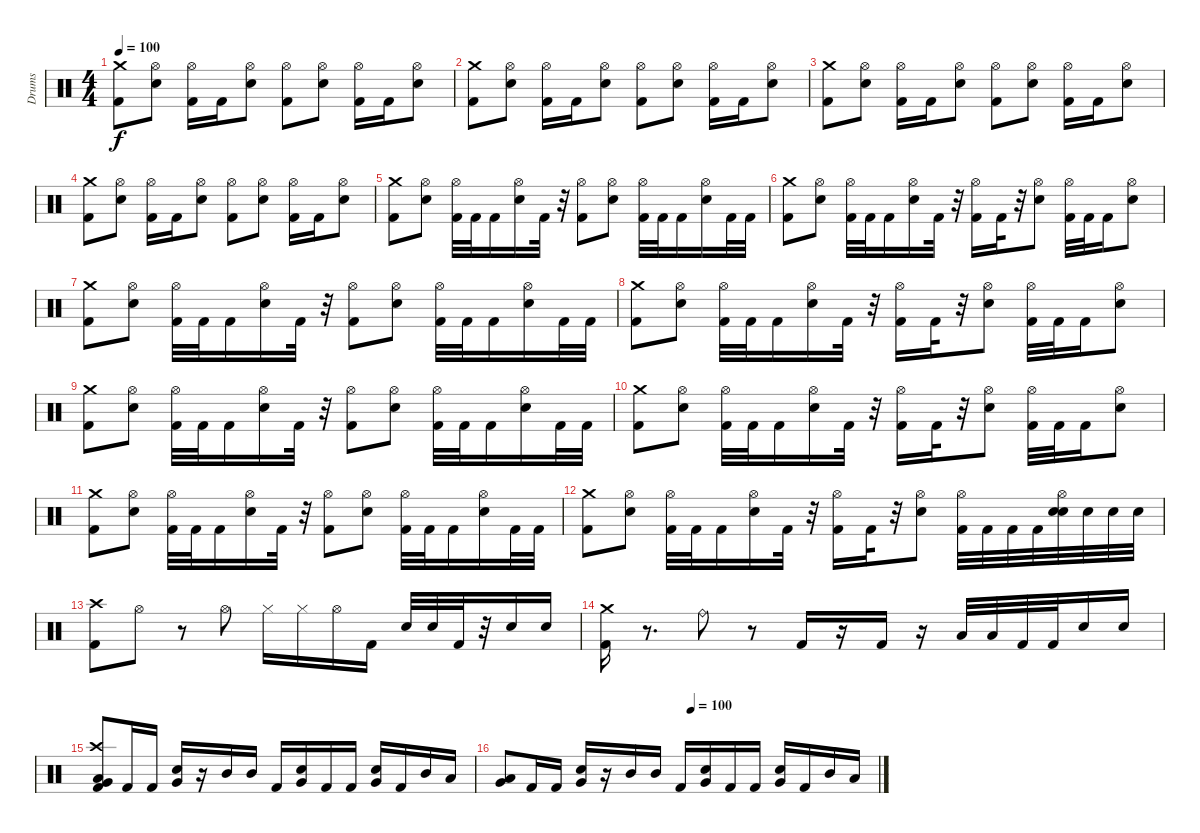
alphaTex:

\track ("Drums" "Drums") {instrument percussion}
\staff {score}
\articulation defaults
\ts (4 4)
\tempo 100
\clef neutral
\ks c
("Kick (hit) 2" "Crash medium (hit)").8{dy f} ("Electric Snare (hit)" "Hi-Hat (open)").8 ("Kick (hit) 2" "Hi-Hat (open)").16 "Kick (hit) 2".16 ("Electric Snare (hit)" "Hi-Hat (open)").8 ("Kick (hit) 2" "Hi-Hat (open)").8 ("Electric Snare (hit)" "Hi-Hat (open)").8 ("Kick (hit) 2" "Hi-Hat (open)").16 "Kick (hit) 2".16 ("Electric Snare (hit)" "Hi-Hat (open)").8 |
("Kick (hit) 2" "Crash medium (hit)").8 ("Electric Snare (hit)" "Hi-Hat (open)").8 ("Kick (hit) 2" "Hi-Hat (open)").16 "Kick (hit) 2".16 ("Electric Snare (hit)" "Hi-Hat (open)").8 ("Kick (hit) 2" "Hi-Hat (open)").8 ("Electric Snare (hit)" "Hi-Hat (open)").8 ("Kick (hit) 2" "Hi-Hat (open)").16 "Kick (hit) 2".16 ("Electric Snare (hit)" "Hi-Hat (open)").8 |
("Kick (hit) 2" "Crash medium (hit)").8 ("Electric Snare (hit)" "Hi-Hat (open)").8 ("Kick (hit) 2" "Hi-Hat (open)").16 "Kick (hit) 2".16 ("Electric Snare (hit)" "Hi-Hat (open)").8 ("Kick (hit) 2" "Hi-Hat (open)").8 ("Electric Snare (hit)" "Hi-Hat (open)").8 ("Kick (hit) 2" "Hi-Hat (open)").16 "Kick (hit) 2".16 ("Electric Snare (hit)" "Hi-Hat (open)").8 |
("Kick (hit) 2" "Crash medium (hit)").8 ("Electric Snare (hit)" "Hi-Hat (open)").8 ("Kick (hit) 2" "Hi-Hat (open)").16 "Kick (hit) 2".16 ("Electric Snare (hit)" "Hi-Hat (open)").8 ("Kick (hit) 2" "Hi-Hat (open)").8 ("Electric Snare (hit)" "Hi-Hat (open)").8 ("Kick (hit) 2" "Hi-Hat (open)").16 "Kick (hit) 2".16 ("Electric Snare (hit)" "Hi-Hat (open)").8 |
("Kick (hit) 2" "Crash medium (hit)").8 ("Electric Snare (hit)" "Hi-Hat (open)").8 ("Kick (hit) 2" "Hi-Hat (open)").32 "Kick (hit) 2".32 "Kick (hit) 2".16 ("Electric Snare (hit)" "Hi-Hat (open)").16 "Kick (hit) 2".32 r.32 ("Kick (hit) 2" "Hi-Hat (open)").8 ("Electric Snare (hit)" "Hi-Hat (open)").8 ("Kick (hit) 2" "Hi-Hat (open)").32 "Kick (hit) 2".32 "Kick (hit) 2".16 ("Electric Snare (hit)" "Hi-Hat (open)").16 "Kick (hit) 2".32 "Kick (hit) 2".32 |
("Kick (hit) 2" "Crash medium (hit)").8 ("Electric Snare (hit)" "Hi-Hat (open)").8 ("Kick (hit) 2" "Hi-Hat (open)").32 "Kick (hit) 2".32 "Kick (hit) 2".16 ("Electric Snare (hit)" "Hi-Hat (open)").16 "Kick (hit) 2".32 r.32 ("Kick (hit) 2" "Hi-Hat (open)").16 "Kick (hit) 2".32 r.32 ("Electric Snare (hit)" "Hi-Hat (open)").8 ("Kick (hit) 2" "Hi-Hat (open)").32 "Kick (hit) 2".32 "Kick (hit) 2".16 ("Electric Snare (hit)" "Hi-Hat (open)").8 |
("Kick (hit) 2" "Crash medium (hit)").8 ("Electric Snare (hit)" "Hi-Hat (open)").8 ("Kick (hit) 2" "Hi-Hat (open)").32 "Kick (hit) 2".32 "Kick (hit) 2".16 ("Electric Snare (hit)" "Hi-Hat (open)").16 "Kick (hit) 2".32 r.32 ("Kick (hit) 2" "Hi-Hat (open)").8 ("Electric Snare (hit)" "Hi-Hat (open)").8 ("Kick (hit) 2" "Hi-Hat (open)").32 "Kick (hit) 2".32 "Kick (hit) 2".16 ("Electric Snare (hit)" "Hi-Hat (open)").16 "Kick (hit) 2".32 "Kick (hit) 2".32 |
("Kick (hit) 2" "Crash medium (hit)").8 ("Electric Snare (hit)" "Hi-Hat (open)").8 ("Kick (hit) 2" "Hi-Hat (open)").32 "Kick (hit) 2".32 "Kick (hit) 2".16 ("Electric Snare (hit)" "Hi-Hat (open)").16 "Kick (hit) 2".32 r.32 ("Kick (hit) 2" "Hi-Hat (open)").16 "Kick (hit) 2".32 r.32 ("Electric Snare (hit)" "Hi-Hat (open)").8 ("Kick (hit) 2" "Hi-Hat (open)").32 "Kick (hit) 2".32 "Kick (hit) 2".16 ("Electric Snare (hit)" "Hi-Hat (open)").8 |
("Kick (hit) 2" "Crash medium (hit)").8 ("Electric Snare (hit)" "Hi-Hat (open)").8 ("Kick (hit) 2" "Hi-Hat (open)").32 "Kick (hit) 2".32 "Kick (hit) 2".16 ("Electric Snare (hit)" "Hi-Hat (open)").16 "Kick (hit) 2".32 r.32 ("Kick (hit) 2" "Hi-Hat (open)").8 ("Electric Snare (hit)" "Hi-Hat (open)").8 ("Kick (hit) 2" "Hi-Hat (open)").32 "Kick (hit) 2".32 "Kick (hit) 2".16 ("Electric Snare (hit)" "Hi-Hat (open)").16 "Kick (hit) 2".32 "Kick (hit) 2".32 |
("Kick (hit) 2" "Crash medium (hit)").8 ("Electric Snare (hit)" "Hi-Hat (open)").8 ("Kick (hit) 2" "Hi-Hat (open)").32 "Kick (hit) 2".32 "Kick (hit) 2".16 ("Electric Snare (hit)" "Hi-Hat (open)").16 "Kick (hit) 2".32 r.32 ("Kick (hit) 2" "Hi-Hat (open)").16 "Kick (hit) 2".32 r.32 ("Electric Snare (hit)" "Hi-Hat (open)").8 ("Kick (hit) 2" "Hi-Hat (open)").32 "Kick (hit) 2".32 "Kick (hit) 2".16 ("Electric Snare (hit)" "Hi-Hat (open)").8 |
("Kick (hit) 2" "Crash medium (hit)").8 ("Electric Snare (hit)" "Hi-Hat (open)").8 ("Kick (hit) 2" "Hi-Hat (open)").32 "Kick (hit) 2".32 "Kick (hit) 2".16 ("Electric Snare (hit)" "Hi-Hat (open)").16 "Kick (hit) 2".32 r.32 ("Kick (hit) 2" "Hi-Hat (open)").8 ("Electric Snare (hit)" "Hi-Hat (open)").8 ("Kick (hit) 2" "Hi-Hat (open)").32 "Kick (hit) 2".32 "Kick (hit) 2".16 ("Electric Snare (hit)" "Hi-Hat (open)").16 "Kick (hit) 2".32 "Kick (hit) 2".32 |
("Kick (hit) 2" "Crash medium (hit)").8 ("Electric Snare (hit)" "Hi-Hat (open)").8 ("Kick (hit) 2" "Hi-Hat (open)").32 "Kick (hit) 2".32 "Kick (hit) 2".16 ("Electric Snare (hit)" "Hi-Hat (open)").16 "Kick (hit) 2".32 r.32 ("Kick (hit) 2" "Hi-Hat (open)").16 "Kick (hit) 2".32 r.32 ("Electric Snare (hit)" "Hi-Hat (open)").8 ("Kick (hit) 2" "Hi-Hat (open)").32 "Kick (hit) 2".32 "Kick (hit) 2".32 "Kick (hit) 2".32 ("Electric Snare (hit)" "Electric Snare (hit)" "Hi-Hat (open)").32 "Electric Snare (hit)".32 "Electric Snare (hit)".32 "Electric Snare (hit)".32 |
("Crash high (hit)" "Kick (hit) 2").8 "Hi-Hat (open)".8 r.8 "Hi-Hat (open)".8 "Hi-Hat (closed)".16 "Hi-Hat (closed)".16 "Hi-Hat (open)".16 "Kick (hit) 2".16 "Electric Snare (hit)".32 "Electric Snare (hit)".32 "Kick (hit) 2".32 r.32 "Electric Snare (hit)".16 "Electric Snare (hit)".16 |
("Crash medium (hit)" "Kick (hit) 2").16 r.8{d} "Ride (bell)".8 r.8 "Kick (hit) 2".16 r.16 "Kick (hit) 2".16 r.16 "Low Tom (hit)".32 "Low Tom (hit)".32 "Kick (hit) 2".32 "Kick (hit) 2".32 "Electric Snare (hit)".16 "Electric Snare (hit)".16 |
("Kick (hit) 2" "Crash high (hit)" "Very Low Tom (hit)" "Low Tom (hit)").8 "Kick (hit) 2".16 "Kick (hit) 2".16 ("Very Low Tom (hit)" "Electric Snare (hit)").16 r.16 "Mid Tom (hit)".16 "Mid Tom (hit)".16 "Kick (hit) 2".16 ("Electric Snare (hit)" "Very Low Tom (hit)").16 "Kick (hit) 2".16 "Kick (hit) 2".16 ("Electric Snare (hit)" "Very Low Tom (hit)").16 "Kick (hit) 2".16 "Mid Tom (hit)".16 "Low Tom (hit)".16 |
\tempo (100 0.5)
("Very Low Tom (hit)" "Low Tom (hit)").8 "Kick (hit) 2".16 "Kick (hit) 2".16 ("Very Low Tom (hit)" "Electric Snare (hit)").16 r.16 "Mid Tom (hit)".16 "Mid Tom (hit)".16 "Kick (hit) 2".16 ("Electric Snare (hit)" "Very Low Tom (hit)").16 "Kick (hit) 2".16 "Kick (hit) 2".16 ("Electric Snare (hit)" "Very Low Tom (hit)").16 "Kick (hit) 2".16 "Mid Tom (hit)".16 "Low Tom (hit)".16
